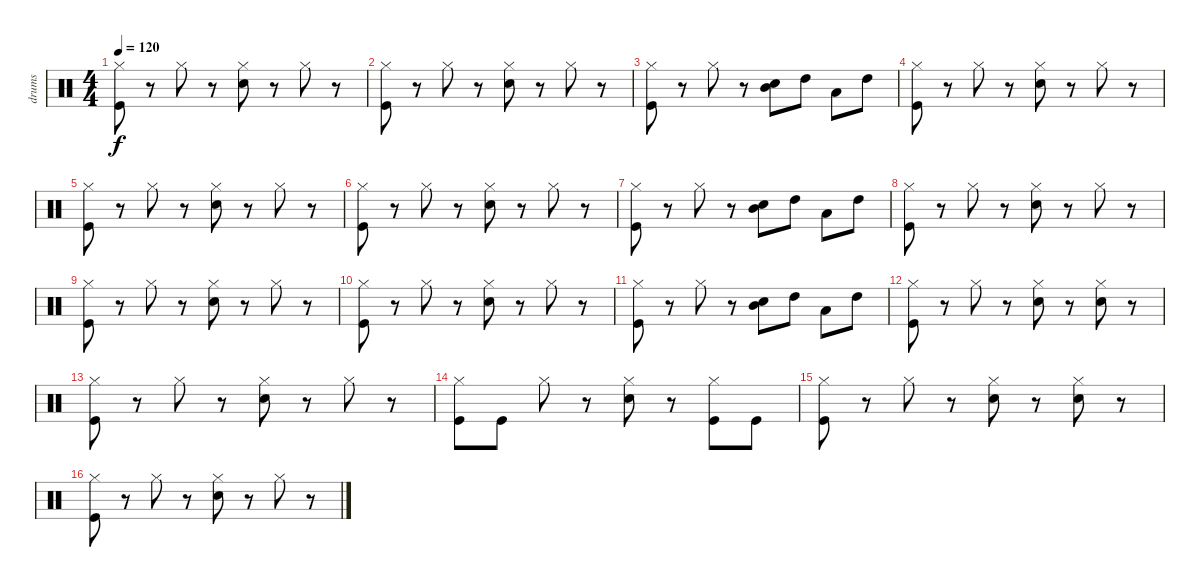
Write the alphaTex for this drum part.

\track ("drums" "drums") {instrument percussion}
\staff {score}
\articulation defaults
\ts (4 4)
\tempo 120
\clef neutral
\ks c
("Hi-Hat (closed)" "Kick (hit)").8{dy f} r.8 "Hi-Hat (closed)".8 r.8 ("Hi-Hat (closed)" "Electric Snare (hit)").8 r.8 "Hi-Hat (closed)".8 r.8 |
("Hi-Hat (closed)" "Kick (hit)").8 r.8 "Hi-Hat (closed)".8 r.8 ("Hi-Hat (closed)" "Electric Snare (hit)").8 r.8 "Hi-Hat (closed)".8 r.8 |
("Hi-Hat (closed)" "Kick (hit)").8 r.8 "Hi-Hat (closed)".8 r.8 ("Mid Tom (hit)" "Electric Snare (hit)").8 "High Tom (hit)".8 "Low Tom (hit)".8 "High Tom (hit)".8 |
("Hi-Hat (closed)" "Kick (hit)").8 r.8 "Hi-Hat (closed)".8 r.8 ("Hi-Hat (closed)" "Electric Snare (hit)").8 r.8 "Hi-Hat (closed)".8 r.8 |
("Hi-Hat (closed)" "Kick (hit)").8 r.8 "Hi-Hat (closed)".8 r.8 ("Hi-Hat (closed)" "Electric Snare (hit)").8 r.8 "Hi-Hat (closed)".8 r.8 |
("Hi-Hat (closed)" "Kick (hit)").8 r.8 "Hi-Hat (closed)".8 r.8 ("Hi-Hat (closed)" "Electric Snare (hit)").8 r.8 "Hi-Hat (closed)".8 r.8 |
("Hi-Hat (closed)" "Kick (hit)").8 r.8 "Hi-Hat (closed)".8 r.8 ("Mid Tom (hit)" "Electric Snare (hit)").8 "High Tom (hit)".8 "Low Tom (hit)".8 "High Tom (hit)".8 |
("Hi-Hat (closed)" "Kick (hit)").8 r.8 "Hi-Hat (closed)".8 r.8 ("Hi-Hat (closed)" "Electric Snare (hit)").8 r.8 "Hi-Hat (closed)".8 r.8 |
("Hi-Hat (closed)" "Kick (hit)").8 r.8 "Hi-Hat (closed)".8 r.8 ("Hi-Hat (closed)" "Electric Snare (hit)").8 r.8 "Hi-Hat (closed)".8 r.8 |
("Hi-Hat (closed)" "Kick (hit)").8 r.8 "Hi-Hat (closed)".8 r.8 ("Hi-Hat (closed)" "Electric Snare (hit)").8 r.8 "Hi-Hat (closed)".8 r.8 |
("Hi-Hat (closed)" "Kick (hit)").8 r.8 "Hi-Hat (closed)".8 r.8 ("Mid Tom (hit)" "Electric Snare (hit)").8 "High Tom (hit)".8 "Low Tom (hit)".8 "High Tom (hit)".8 |
("Hi-Hat (closed)" "Kick (hit)").8 r.8 "Hi-Hat (closed)".8 r.8 ("Hi-Hat (closed)" "Electric Snare (hit)").8 r.8 ("Hi-Hat (closed)" "Electric Snare (hit)").8 r.8 |
("Hi-Hat (closed)" "Kick (hit)").8 r.8 "Hi-Hat (closed)".8 r.8 ("Hi-Hat (closed)" "Electric Snare (hit)").8 r.8 "Hi-Hat (closed)".8 r.8 |
("Hi-Hat (closed)" "Kick (hit)").8 "Kick (hit)".8 "Hi-Hat (closed)".8 r.8 ("Hi-Hat (closed)" "Electric Snare (hit)").8 r.8 ("Hi-Hat (closed)" "Kick (hit)").8 "Kick (hit)".8 |
("Hi-Hat (closed)" "Kick (hit)").8 r.8 "Hi-Hat (closed)".8 r.8 ("Hi-Hat (closed)" "Electric Snare (hit)").8 r.8 ("Hi-Hat (closed)" "Electric Snare (hit)").8 r.8 |
("Hi-Hat (closed)" "Kick (hit)").8 r.8 "Hi-Hat (closed)".8 r.8 ("Hi-Hat (closed)" "Electric Snare (hit)").8 r.8 "Hi-Hat (closed)".8 r.8
